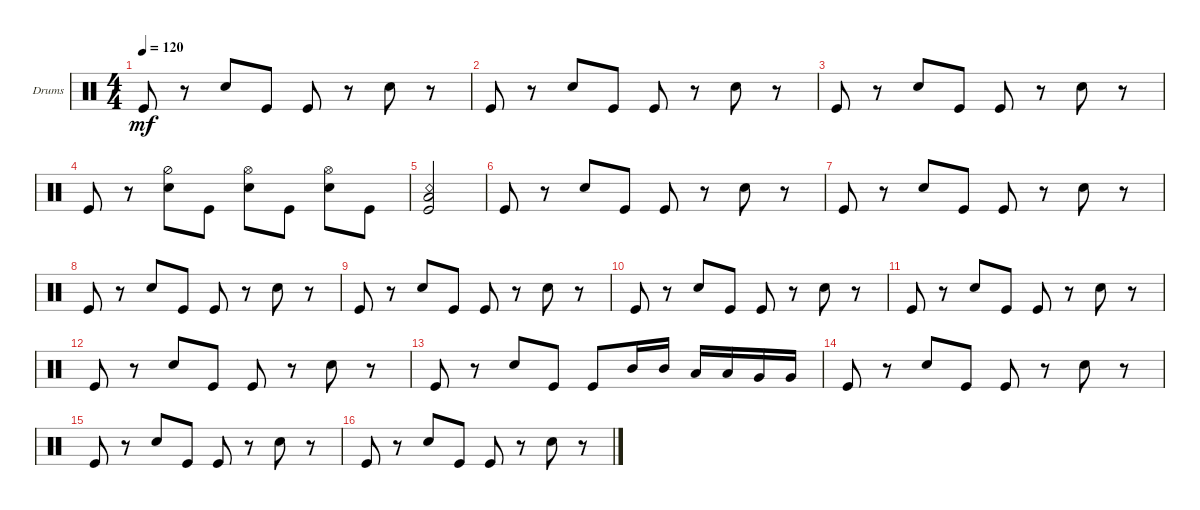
\defaultSystemsLayout 4
\bracketExtendMode groupsimilarinstruments
\firstSystemTrackNameOrientation horizontal
\otherSystemsTrackNameOrientation horizontal
\track ("Drumkit" "Drums") {instrument percussion}
\staff {score}
\articulation defaults
\ts (4 4)
\tempo 120
\clef neutral
\ks c "Kick (hit)".8{dy mf}
r.8 "Snare (hit) 2".8 "Kick (hit)".8 "Kick (hit)".8 r.8 "Snare (hit) 2".8 r.8 |
"Kick (hit)".8 r.8 "Snare (hit) 2".8 "Kick (hit)".8 "Kick (hit)".8 r.8 "Snare (hit) 2".8 r.8 |
"Kick (hit)".8 r.8 "Snare (hit) 2".8 "Kick (hit)".8 "Kick (hit)".8 r.8 "Snare (hit) 2".8 r.8 |
"Kick (hit)".8 r.8 ("Snare (hit) 2" "Hi-Hat (half)").8 "Kick (hit)".8 ("Snare (hit) 2" "Hi-Hat (open)").8 "Kick (hit)".8 ("Snare (hit) 2" "Hi-Hat (open)").8 "Kick (hit)".8 |
("Kick (hit)" "Snare (rim shot)" "Low Tom (hit)").2 |
"Kick (hit)".8 r.8 "Snare (hit) 2".8 "Kick (hit)".8 "Kick (hit)".8 r.8 "Snare (hit) 2".8 r.8 |
"Kick (hit)".8 r.8 "Snare (hit) 2".8 "Kick (hit)".8 "Kick (hit)".8 r.8 "Snare (hit) 2".8 r.8 |
"Kick (hit)".8 r.8 "Snare (hit) 2".8 "Kick (hit)".8 "Kick (hit)".8 r.8 "Snare (hit) 2".8 r.8 |
"Kick (hit)".8 r.8 "Snare (hit) 2".8 "Kick (hit)".8 "Kick (hit)".8 r.8 "Snare (hit) 2".8 r.8 |
"Kick (hit)".8 r.8 "Snare (hit) 2".8 "Kick (hit)".8 "Kick (hit)".8 r.8 "Snare (hit) 2".8 r.8 |
"Kick (hit)".8 r.8 "Snare (hit) 2".8 "Kick (hit)".8 "Kick (hit)".8 r.8 "Snare (hit) 2".8 r.8 |
"Kick (hit)".8 r.8 "Snare (hit) 2".8 "Kick (hit)".8 "Kick (hit)".8 r.8 "Snare (hit) 2".8 r.8 |
"Kick (hit)".8 r.8 "Snare (hit) 2".8 "Kick (hit)".8 "Kick (hit)".8 "Mid Tom (hit)".16 "Mid Tom (hit)".16 "Low Tom (hit)".16 "Low Tom (hit)".16 "Very Low Tom (hit)".16 "Very Low Tom (hit)".16 |
"Kick (hit)".8 r.8 "Snare (hit) 2".8 "Kick (hit)".8 "Kick (hit)".8 r.8 "Snare (hit) 2".8 r.8 |
"Kick (hit)".8 r.8 "Snare (hit) 2".8 "Kick (hit)".8 "Kick (hit)".8 r.8 "Snare (hit) 2".8 r.8 |
"Kick (hit)".8 r.8 "Snare (hit) 2".8 "Kick (hit)".8 "Kick (hit)".8 r.8 "Snare (hit) 2".8 r.8
